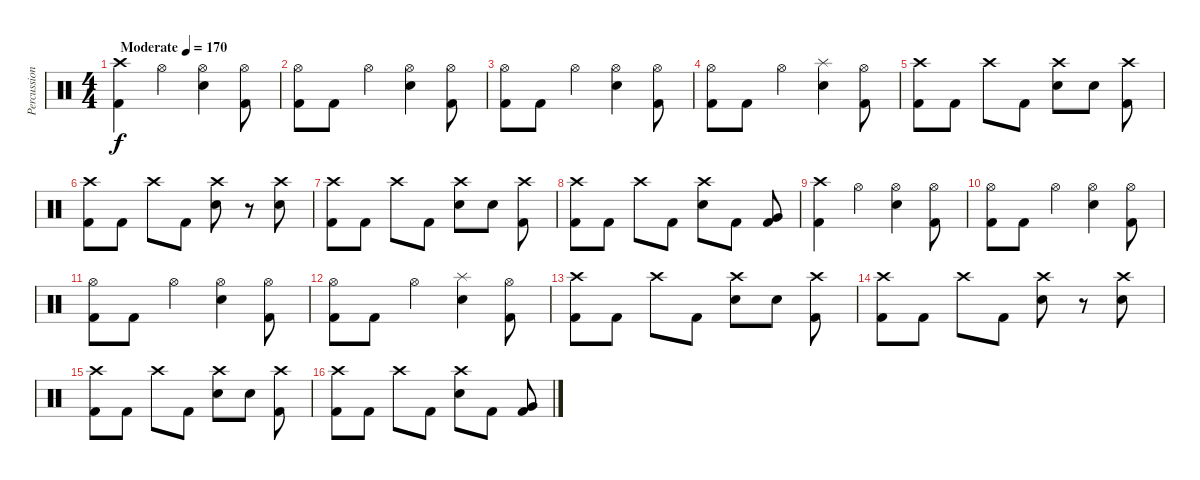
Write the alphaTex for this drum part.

\track ("Percussion" "Percussion") {instrument percussion}
\staff {score}
\articulation defaults
\ts (4 4)
\tempo (170 "Moderate")
\clef neutral
\ks c
("Kick (hit) 2" "Crash high (hit)").4{dy f} "Hi-Hat (open)".4 ("Snare (hit) 2" "Hi-Hat (open)").4 ("Kick (hit) 2" "Hi-Hat (open)").8 |
("Kick (hit) 2" "Hi-Hat (open)").8 "Kick (hit) 2".8 "Hi-Hat (open)".4 ("Snare (hit) 2" "Hi-Hat (open)").4 ("Kick (hit) 2" "Hi-Hat (open)").8 |
("Kick (hit) 2" "Hi-Hat (open)").8 "Kick (hit) 2".8 "Hi-Hat (open)".4 ("Snare (hit) 2" "Hi-Hat (open)").4 ("Kick (hit) 2" "Hi-Hat (open)").8 |
("Kick (hit) 2" "Hi-Hat (open)").8 "Kick (hit) 2".8 "Hi-Hat (open)".4 ("Snare (hit) 2" "Splash (hit)").4 ("Kick (hit) 2" "Hi-Hat (open)").8 |
("Kick (hit) 2" "Crash high (hit)").8 "Kick (hit) 2".8 "Crash high (hit)".8 "Kick (hit) 2".8 ("Snare (hit) 2" "Crash high (hit)").8 "Snare (hit) 2".8 ("Kick (hit) 2" "Crash high (hit)").8 |
("Kick (hit) 2" "Crash high (hit)").8 "Kick (hit) 2".8 "Crash high (hit)".8 "Kick (hit) 2".8 ("Snare (hit) 2" "Crash high (hit)").8 r.8 ("Snare (hit) 2" "Crash high (hit)").8 |
("Kick (hit) 2" "Crash high (hit)").8 "Kick (hit) 2".8 "Crash high (hit)".8 "Kick (hit) 2".8 ("Snare (hit) 2" "Crash high (hit)").8 "Snare (hit) 2".8 ("Kick (hit) 2" "Crash high (hit)").8 |
("Kick (hit) 2" "Crash high (hit)").8 "Kick (hit) 2".8 "Crash high (hit)".8 "Kick (hit) 2".8 ("Snare (hit) 2" "Crash high (hit)").8 "Kick (hit) 2".8 ("Kick (hit) 2" "Very Low Tom (hit)").8 |
("Kick (hit) 2" "Crash high (hit)").4 "Hi-Hat (open)".4 ("Snare (hit) 2" "Hi-Hat (open)").4 ("Kick (hit) 2" "Hi-Hat (open)").8 |
("Kick (hit) 2" "Hi-Hat (open)").8 "Kick (hit) 2".8 "Hi-Hat (open)".4 ("Snare (hit) 2" "Hi-Hat (open)").4 ("Kick (hit) 2" "Hi-Hat (open)").8 |
("Kick (hit) 2" "Hi-Hat (open)").8 "Kick (hit) 2".8 "Hi-Hat (open)".4 ("Snare (hit) 2" "Hi-Hat (open)").4 ("Kick (hit) 2" "Hi-Hat (open)").8 |
("Kick (hit) 2" "Hi-Hat (open)").8 "Kick (hit) 2".8 "Hi-Hat (open)".4 ("Snare (hit) 2" "Splash (hit)").4 ("Kick (hit) 2" "Hi-Hat (open)").8 |
("Kick (hit) 2" "Crash high (hit)").8 "Kick (hit) 2".8 "Crash high (hit)".8 "Kick (hit) 2".8 ("Snare (hit) 2" "Crash high (hit)").8 "Snare (hit) 2".8 ("Kick (hit) 2" "Crash high (hit)").8 |
("Kick (hit) 2" "Crash high (hit)").8 "Kick (hit) 2".8 "Crash high (hit)".8 "Kick (hit) 2".8 ("Snare (hit) 2" "Crash high (hit)").8 r.8 ("Snare (hit) 2" "Crash high (hit)").8 |
("Kick (hit) 2" "Crash high (hit)").8 "Kick (hit) 2".8 "Crash high (hit)".8 "Kick (hit) 2".8 ("Snare (hit) 2" "Crash high (hit)").8 "Snare (hit) 2".8 ("Kick (hit) 2" "Crash high (hit)").8 |
("Kick (hit) 2" "Crash high (hit)").8 "Kick (hit) 2".8 "Crash high (hit)".8 "Kick (hit) 2".8 ("Snare (hit) 2" "Crash high (hit)").8 "Kick (hit) 2".8 ("Kick (hit) 2" "Very Low Tom (hit)").8
